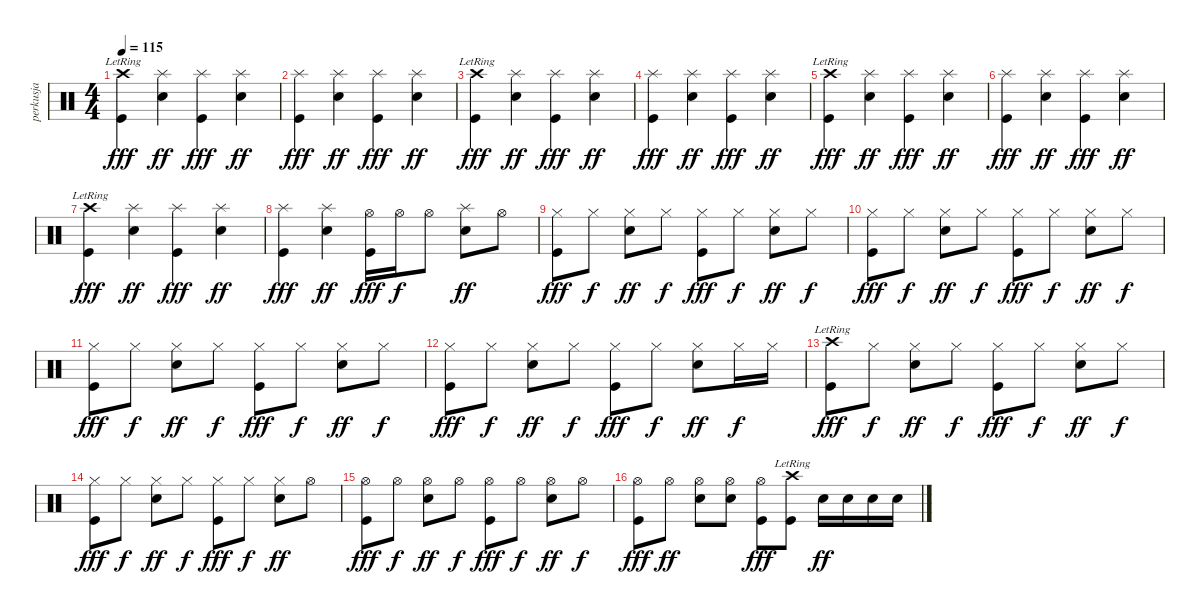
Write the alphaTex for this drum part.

\track ("perkusja" "perkusja") {instrument percussion}
\staff {score}
\articulation defaults
\ts (4 4)
\tempo 115
\clef neutral
\ks c
("Crash high (hit)"{lr} "Kick (hit)").4{dy fff} ("Splash (hit)" "Electric Snare (hit)").4{dy ff} ("Splash (hit)" "Kick (hit)").4{dy fff} ("Splash (hit)" "Electric Snare (hit)").4{dy ff} |
("Splash (hit)" "Kick (hit)").4{dy fff} ("Splash (hit)" "Electric Snare (hit)").4{dy ff} ("Splash (hit)" "Kick (hit)").4{dy fff} ("Splash (hit)" "Electric Snare (hit)").4{dy ff} |
("Crash high (hit)"{lr} "Kick (hit)").4{dy fff} ("Splash (hit)" "Electric Snare (hit)").4{dy ff} ("Splash (hit)" "Kick (hit)").4{dy fff} ("Splash (hit)" "Electric Snare (hit)").4{dy ff} |
("Splash (hit)" "Kick (hit)").4{dy fff} ("Splash (hit)" "Electric Snare (hit)").4{dy ff} ("Splash (hit)" "Kick (hit)").4{dy fff} ("Splash (hit)" "Electric Snare (hit)").4{dy ff} |
("Crash high (hit)"{lr} "Kick (hit)").4{dy fff} ("Splash (hit)" "Electric Snare (hit)").4{dy ff} ("Splash (hit)" "Kick (hit)").4{dy fff} ("Splash (hit)" "Electric Snare (hit)").4{dy ff} |
("Splash (hit)" "Kick (hit)").4{dy fff} ("Splash (hit)" "Electric Snare (hit)").4{dy ff} ("Splash (hit)" "Kick (hit)").4{dy fff} ("Splash (hit)" "Electric Snare (hit)").4{dy ff} |
("Crash high (hit)"{lr} "Kick (hit)").4{dy fff} ("Splash (hit)" "Electric Snare (hit)").4{dy ff} ("Splash (hit)" "Kick (hit)").4{dy fff} ("Splash (hit)" "Electric Snare (hit)").4{dy ff} |
("Splash (hit)" "Kick (hit)").4{dy fff} ("Splash (hit)" "Electric Snare (hit)").4{dy ff} ("Hi-Hat (open)" "Kick (hit)").16{dy fff} "Hi-Hat (open)".16{dy f} "Hi-Hat (open)".8 ("Splash (hit)" "Electric Snare (hit)").8{dy ff} "Hi-Hat (open)".8 |
("Hi-Hat (closed)" "Kick (hit)").8{dy fff} "Hi-Hat (closed)".8{dy f} ("Hi-Hat (closed)" "Electric Snare (hit)").8{dy ff} "Hi-Hat (closed)".8{dy f} ("Hi-Hat (closed)" "Kick (hit)").8{dy fff} "Hi-Hat (closed)".8{dy f} ("Hi-Hat (closed)" "Electric Snare (hit)").8{dy ff} "Hi-Hat (closed)".8{dy f} |
("Hi-Hat (closed)" "Kick (hit)").8{dy fff} "Hi-Hat (closed)".8{dy f} ("Hi-Hat (closed)" "Electric Snare (hit)").8{dy ff} "Hi-Hat (closed)".8{dy f} ("Hi-Hat (closed)" "Kick (hit)").8{dy fff} "Hi-Hat (closed)".8{dy f} ("Hi-Hat (closed)" "Electric Snare (hit)").8{dy ff} "Hi-Hat (closed)".8{dy f} |
("Hi-Hat (closed)" "Kick (hit)").8{dy fff} "Hi-Hat (closed)".8{dy f} ("Hi-Hat (closed)" "Electric Snare (hit)").8{dy ff} "Hi-Hat (closed)".8{dy f} ("Hi-Hat (closed)" "Kick (hit)").8{dy fff} "Hi-Hat (closed)".8{dy f} ("Hi-Hat (closed)" "Electric Snare (hit)").8{dy ff} "Hi-Hat (closed)".8{dy f} |
("Hi-Hat (closed)" "Kick (hit)").8{dy fff} "Hi-Hat (closed)".8{dy f} ("Hi-Hat (closed)" "Electric Snare (hit)").8{dy ff} "Hi-Hat (closed)".8{dy f} ("Hi-Hat (closed)" "Kick (hit)").8{dy fff} "Hi-Hat (closed)".8{dy f} ("Hi-Hat (closed)" "Electric Snare (hit)").8{dy ff} "Hi-Hat (closed)".16{dy f} "Hi-Hat (closed)".16 |
("Crash high (hit)"{lr} "Kick (hit)").8{dy fff} "Hi-Hat (closed)".8{dy f} ("Hi-Hat (closed)" "Electric Snare (hit)").8{dy ff} "Hi-Hat (closed)".8{dy f} ("Hi-Hat (closed)" "Kick (hit)").8{dy fff} "Hi-Hat (closed)".8{dy f} ("Hi-Hat (closed)" "Electric Snare (hit)").8{dy ff} "Hi-Hat (closed)".8{dy f} |
("Hi-Hat (closed)" "Kick (hit)").8{dy fff} "Hi-Hat (closed)".8{dy f} ("Hi-Hat (closed)" "Electric Snare (hit)").8{dy ff} "Hi-Hat (closed)".8{dy f} ("Hi-Hat (closed)" "Kick (hit)").8{dy fff} "Hi-Hat (closed)".8{dy f} ("Hi-Hat (closed)" "Electric Snare (hit)").8{dy ff} "Hi-Hat (open)".8 |
("Hi-Hat (open)" "Kick (hit)").8{dy fff} "Hi-Hat (open)".8{dy f} ("Hi-Hat (open)" "Electric Snare (hit)").8{dy ff} "Hi-Hat (open)".8{dy f} ("Hi-Hat (open)" "Kick (hit)").8{dy fff} "Hi-Hat (open)".8{dy f} ("Hi-Hat (open)" "Electric Snare (hit)").8{dy ff} "Hi-Hat (open)".8{dy f} |
("Hi-Hat (open)" "Kick (hit)").8{dy fff} "Hi-Hat (open)".8{dy ff} ("Hi-Hat (open)" "Electric Snare (hit)").8 ("Hi-Hat (open)" "Electric Snare (hit)").8 ("Hi-Hat (open)" "Kick (hit)").8{dy fff} ("Crash high (hit)"{lr} "Kick (hit)").8 "Electric Snare (hit)".16{dy ff} "Electric Snare (hit)".16 "Electric Snare (hit)".16 "Electric Snare (hit)".16
